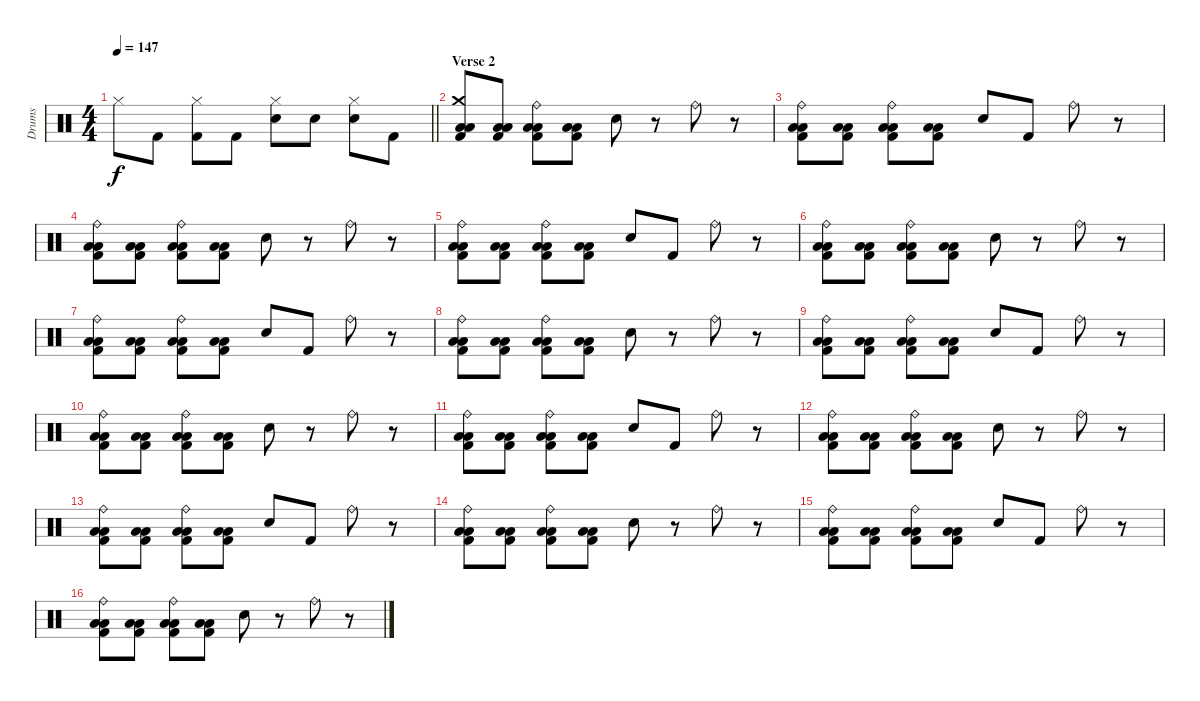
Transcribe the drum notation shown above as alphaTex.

\track ("Drums" "Drums") {instrument percussion}
\staff {score}
\articulation defaults
\ts (4 4)
\tempo 147
\clef neutral
\barLineRight lightlight
\ks c "Hi-Hat (closed)".8{dy f} "Kick (hit) 2".8
("Hi-Hat (closed)" "Kick (hit) 2").8 "Kick (hit) 2".8 ("Hi-Hat (closed)" "Electric Snare (hit)").8 "Electric Snare (hit)".8 ("Hi-Hat (closed)" "Electric Snare (hit)").8 "Kick (hit) 2".8 |
\section ("" "Verse 2")
("Crash medium (hit)" "Low Tom (hit)" "Low Floor Tom (hit)" "Kick (hit) 2").8 ("Low Tom (hit)" "Low Floor Tom (hit)" "Kick (hit) 2").8 ("Ride (bell)" "Low Tom (hit)" "Low Floor Tom (hit)" "Kick (hit) 2").8 ("Low Tom (hit)" "Low Floor Tom (hit)" "Kick (hit) 2").8 "Electric Snare (hit)".8 r.8 "Ride (bell)".8 r.8 |
("Ride (bell)" "Low Tom (hit)" "Low Floor Tom (hit)" "Kick (hit) 2").8 ("Low Tom (hit)" "Low Floor Tom (hit)" "Kick (hit) 2").8 ("Ride (bell)" "Low Tom (hit)" "Low Floor Tom (hit)" "Kick (hit) 2").8 ("Low Tom (hit)" "Low Floor Tom (hit)" "Kick (hit) 2").8 "Electric Snare (hit)".8 "Kick (hit) 2".8 "Ride (bell)".8 r.8 |
("Ride (bell)" "Low Tom (hit)" "Low Floor Tom (hit)" "Kick (hit) 2").8 ("Low Tom (hit)" "Low Floor Tom (hit)" "Kick (hit) 2").8 ("Ride (bell)" "Low Tom (hit)" "Low Floor Tom (hit)" "Kick (hit) 2").8 ("Low Tom (hit)" "Low Floor Tom (hit)" "Kick (hit) 2").8 "Electric Snare (hit)".8 r.8 "Ride (bell)".8 r.8 |
("Ride (bell)" "Low Tom (hit)" "Low Floor Tom (hit)" "Kick (hit) 2").8 ("Low Tom (hit)" "Low Floor Tom (hit)" "Kick (hit) 2").8 ("Ride (bell)" "Low Tom (hit)" "Low Floor Tom (hit)" "Kick (hit) 2").8 ("Low Tom (hit)" "Low Floor Tom (hit)" "Kick (hit) 2").8 "Electric Snare (hit)".8 "Kick (hit) 2".8 "Ride (bell)".8 r.8 |
("Ride (bell)" "Low Tom (hit)" "Low Floor Tom (hit)" "Kick (hit) 2").8 ("Low Tom (hit)" "Low Floor Tom (hit)" "Kick (hit) 2").8 ("Ride (bell)" "Low Tom (hit)" "Low Floor Tom (hit)" "Kick (hit) 2").8 ("Low Tom (hit)" "Low Floor Tom (hit)" "Kick (hit) 2").8 "Electric Snare (hit)".8 r.8 "Ride (bell)".8 r.8 |
("Ride (bell)" "Low Tom (hit)" "Low Floor Tom (hit)" "Kick (hit) 2").8 ("Low Tom (hit)" "Low Floor Tom (hit)" "Kick (hit) 2").8 ("Ride (bell)" "Low Tom (hit)" "Low Floor Tom (hit)" "Kick (hit) 2").8 ("Low Tom (hit)" "Low Floor Tom (hit)" "Kick (hit) 2").8 "Electric Snare (hit)".8 "Kick (hit) 2".8 "Ride (bell)".8 r.8 |
("Ride (bell)" "Low Tom (hit)" "Low Floor Tom (hit)" "Kick (hit) 2").8 ("Low Tom (hit)" "Low Floor Tom (hit)" "Kick (hit) 2").8 ("Ride (bell)" "Low Tom (hit)" "Low Floor Tom (hit)" "Kick (hit) 2").8 ("Low Tom (hit)" "Low Floor Tom (hit)" "Kick (hit) 2").8 "Electric Snare (hit)".8 r.8 "Ride (bell)".8 r.8 |
("Ride (bell)" "Low Tom (hit)" "Low Floor Tom (hit)" "Kick (hit) 2").8 ("Low Tom (hit)" "Low Floor Tom (hit)" "Kick (hit) 2").8 ("Ride (bell)" "Low Tom (hit)" "Low Floor Tom (hit)" "Kick (hit) 2").8 ("Low Tom (hit)" "Low Floor Tom (hit)" "Kick (hit) 2").8 "Electric Snare (hit)".8 "Kick (hit) 2".8 "Ride (bell)".8 r.8 |
("Ride (bell)" "Low Tom (hit)" "Low Floor Tom (hit)" "Kick (hit) 2").8 ("Low Tom (hit)" "Low Floor Tom (hit)" "Kick (hit) 2").8 ("Ride (bell)" "Low Tom (hit)" "Low Floor Tom (hit)" "Kick (hit) 2").8 ("Low Tom (hit)" "Low Floor Tom (hit)" "Kick (hit) 2").8 "Electric Snare (hit)".8 r.8 "Ride (bell)".8 r.8 |
("Ride (bell)" "Low Tom (hit)" "Low Floor Tom (hit)" "Kick (hit) 2").8 ("Low Tom (hit)" "Low Floor Tom (hit)" "Kick (hit) 2").8 ("Ride (bell)" "Low Tom (hit)" "Low Floor Tom (hit)" "Kick (hit) 2").8 ("Low Tom (hit)" "Low Floor Tom (hit)" "Kick (hit) 2").8 "Electric Snare (hit)".8 "Kick (hit) 2".8 "Ride (bell)".8 r.8 |
("Ride (bell)" "Low Tom (hit)" "Low Floor Tom (hit)" "Kick (hit) 2").8 ("Low Tom (hit)" "Low Floor Tom (hit)" "Kick (hit) 2").8 ("Ride (bell)" "Low Tom (hit)" "Low Floor Tom (hit)" "Kick (hit) 2").8 ("Low Tom (hit)" "Low Floor Tom (hit)" "Kick (hit) 2").8 "Electric Snare (hit)".8 r.8 "Ride (bell)".8 r.8 |
("Ride (bell)" "Low Tom (hit)" "Low Floor Tom (hit)" "Kick (hit) 2").8 ("Low Tom (hit)" "Low Floor Tom (hit)" "Kick (hit) 2").8 ("Ride (bell)" "Low Tom (hit)" "Low Floor Tom (hit)" "Kick (hit) 2").8 ("Low Tom (hit)" "Low Floor Tom (hit)" "Kick (hit) 2").8 "Electric Snare (hit)".8 "Kick (hit) 2".8 "Ride (bell)".8 r.8 |
("Ride (bell)" "Low Tom (hit)" "Low Floor Tom (hit)" "Kick (hit) 2").8 ("Low Tom (hit)" "Low Floor Tom (hit)" "Kick (hit) 2").8 ("Ride (bell)" "Low Tom (hit)" "Low Floor Tom (hit)" "Kick (hit) 2").8 ("Low Tom (hit)" "Low Floor Tom (hit)" "Kick (hit) 2").8 "Electric Snare (hit)".8 r.8 "Ride (bell)".8 r.8 |
("Ride (bell)" "Low Tom (hit)" "Low Floor Tom (hit)" "Kick (hit) 2").8 ("Low Tom (hit)" "Low Floor Tom (hit)" "Kick (hit) 2").8 ("Ride (bell)" "Low Tom (hit)" "Low Floor Tom (hit)" "Kick (hit) 2").8 ("Low Tom (hit)" "Low Floor Tom (hit)" "Kick (hit) 2").8 "Electric Snare (hit)".8 "Kick (hit) 2".8 "Ride (bell)".8 r.8 |
("Ride (bell)" "Low Tom (hit)" "Low Floor Tom (hit)" "Kick (hit) 2").8 ("Low Tom (hit)" "Low Floor Tom (hit)" "Kick (hit) 2").8 ("Ride (bell)" "Low Tom (hit)" "Low Floor Tom (hit)" "Kick (hit) 2").8 ("Low Tom (hit)" "Low Floor Tom (hit)" "Kick (hit) 2").8 "Electric Snare (hit)".8 r.8 "Ride (bell)".8 r.8
